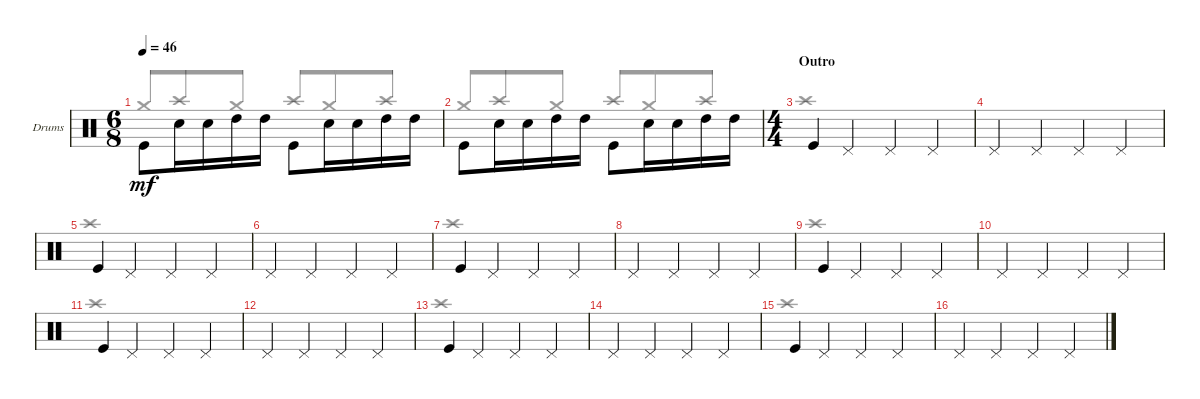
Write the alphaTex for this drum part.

\defaultSystemsLayout 4
\bracketExtendMode groupsimilarinstruments
\firstSystemTrackNameOrientation horizontal
\otherSystemsTrackNameOrientation horizontal
\track ("PETER CRISS" "Drums") {solo instrument percussion}
\staff {score}
\articulation defaults
\voice
\ts (6 8)
\tempo 46
\clef neutral
\ks aminor "Kick (hit)".8{dy mf beam invert} "Snare (hit) 2".16 "Snare (hit) 2".16 "High Tom (hit)".16 "High Tom (hit)".16 "Kick (hit)".8{beam invert} "Snare (hit) 2".16 "Snare (hit) 2".16 "High Tom (hit)".16 "High Tom (hit)".16
|
"Kick (hit)".8{beam invert} "Snare (hit) 2".16 "Snare (hit) 2".16 "High Tom (hit)".16 "High Tom (hit)".16 "Kick (hit)".8{beam invert} "Snare (hit) 2".16 "Snare (hit) 2".16 "High Tom (hit)".16 "High Tom (hit)".16 |
\ts (4 4)
\section ("" "Outro")
"Kick (hit)".4 "Pedal Hi-Hat (hit)".4 "Pedal Hi-Hat (hit)".4 "Pedal Hi-Hat (hit)".4 |
"Pedal Hi-Hat (hit)".4 "Pedal Hi-Hat (hit)".4 "Pedal Hi-Hat (hit)".4 "Pedal Hi-Hat (hit)".4 |
"Kick (hit)".4 "Pedal Hi-Hat (hit)".4 "Pedal Hi-Hat (hit)".4 "Pedal Hi-Hat (hit)".4 |
"Pedal Hi-Hat (hit)".4 "Pedal Hi-Hat (hit)".4 "Pedal Hi-Hat (hit)".4 "Pedal Hi-Hat (hit)".4 |
"Kick (hit)".4 "Pedal Hi-Hat (hit)".4 "Pedal Hi-Hat (hit)".4 "Pedal Hi-Hat (hit)".4 |
"Pedal Hi-Hat (hit)".4 "Pedal Hi-Hat (hit)".4 "Pedal Hi-Hat (hit)".4 "Pedal Hi-Hat (hit)".4 |
"Kick (hit)".4 "Pedal Hi-Hat (hit)".4 "Pedal Hi-Hat (hit)".4 "Pedal Hi-Hat (hit)".4 |
"Pedal Hi-Hat (hit)".4 "Pedal Hi-Hat (hit)".4 "Pedal Hi-Hat (hit)".4 "Pedal Hi-Hat (hit)".4 |
"Kick (hit)".4 "Pedal Hi-Hat (hit)".4 "Pedal Hi-Hat (hit)".4 "Pedal Hi-Hat (hit)".4 |
"Pedal Hi-Hat (hit)".4 "Pedal Hi-Hat (hit)".4 "Pedal Hi-Hat (hit)".4 "Pedal Hi-Hat (hit)".4 |
"Kick (hit)".4 "Pedal Hi-Hat (hit)".4 "Pedal Hi-Hat (hit)".4 "Pedal Hi-Hat (hit)".4 |
"Pedal Hi-Hat (hit)".4 "Pedal Hi-Hat (hit)".4 "Pedal Hi-Hat (hit)".4 "Pedal Hi-Hat (hit)".4 |
"Kick (hit)".4 "Pedal Hi-Hat (hit)".4 "Pedal Hi-Hat (hit)".4 "Pedal Hi-Hat (hit)".4 |
"Pedal Hi-Hat (hit)".4 "Pedal Hi-Hat (hit)".4 "Pedal Hi-Hat (hit)".4 "Pedal Hi-Hat (hit)".4
\voice
\clef neutral
\ottava regular
\simile none
\ks aminor "Crash medium (hit)".8{dy mf beam invert} "Crash high (hit)".8 "Crash medium (hit)".8 "Crash high (hit)".8{beam invert} "Crash medium (hit)".8 "Crash high (hit)".8
|
"Crash medium (hit)".8{beam invert} "Crash high (hit)".8 "Crash medium (hit)".8 "Crash high (hit)".8{beam invert} "Crash medium (hit)".8 "Crash high (hit)".8 |
"Crash high (hit)".1 |
|
"Crash high (hit)".1 |
|
"Crash high (hit)".1 |
|
"Crash high (hit)".1 |
|
"Crash high (hit)".1 |
|
"Crash high (hit)".1 |
|
"Crash high (hit)".1 |
